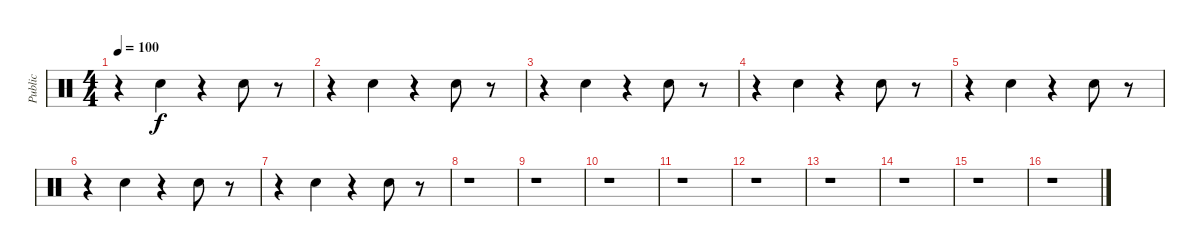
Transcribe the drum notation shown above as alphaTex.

\track ("Public" "Public") {instrument percussion}
\staff {score}
\articulation defaults
\ts (4 4)
\tempo 100
\clef neutral
\ks c
r.4{dy f volume 13} "Hand Clap (hit)".4 r.4 "Hand Clap (hit)".8 r.8 |
r.4{volume 13} "Hand Clap (hit)".4 r.4 "Hand Clap (hit)".8 r.8 |
r.4{volume 11} "Hand Clap (hit)".4 r.4 "Hand Clap (hit)".8 r.8 |
r.4{volume 8} "Hand Clap (hit)".4 r.4 "Hand Clap (hit)".8 r.8 |
r.4{volume 5} "Hand Clap (hit)".4 r.4 "Hand Clap (hit)".8 r.8 |
r.4{volume 3} "Hand Clap (hit)".4 r.4 "Hand Clap (hit)".8 r.8 |
r.4{volume 0} "Hand Clap (hit)".4 r.4 "Hand Clap (hit)".8 r.8 |
r.1 |
r.1 |
r.1 |
r.1 |
r.1 |
r.1 |
r.1 |
r.1 |
r.1
